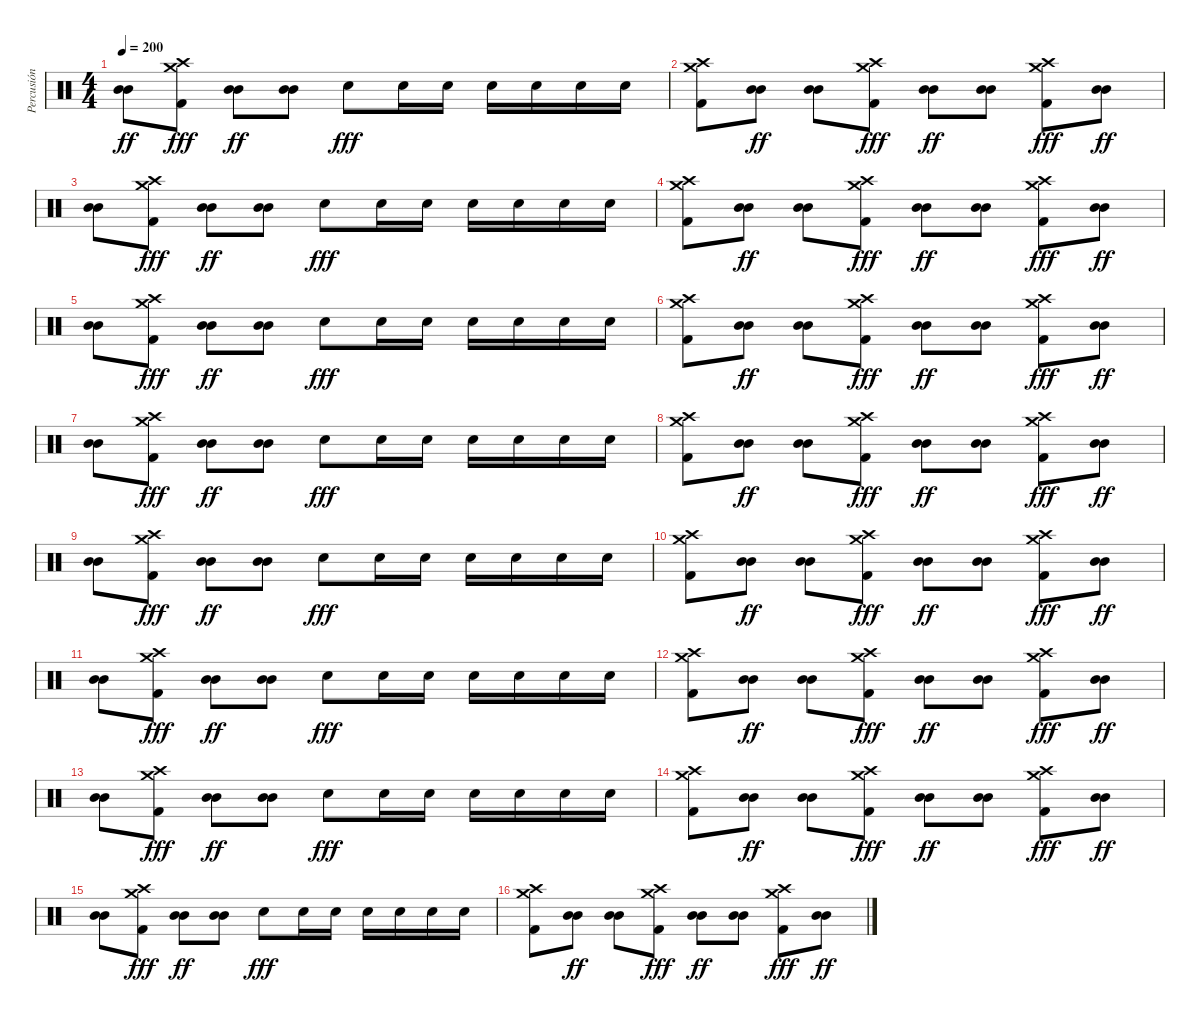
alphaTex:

\track ("Percusión" "Percusión") {instrument percussion}
\staff {score}
\articulation defaults
\ts (4 4)
\tempo 200
\clef neutral
\ks c
("Mid Tom (hit)" "Mid Tom (hit)").8{dy ff} ("Crash high (hit)" "Crash medium (hit)" "Kick (hit) 2").8{dy fff} ("Mid Tom (hit)" "Mid Tom (hit)").8{dy ff} ("Mid Tom (hit)" "Mid Tom (hit)").8 "Snare (hit) 2".8{dy fff} "Snare (hit) 2".16 "Snare (hit) 2".16 "Snare (hit) 2".16 "Snare (hit) 2".16 "Snare (hit) 2".16 "Snare (hit) 2".16 |
("Crash high (hit)" "Crash medium (hit)" "Kick (hit) 2").8 ("Mid Tom (hit)" "Mid Tom (hit)").8{dy ff} ("Mid Tom (hit)" "Mid Tom (hit)").8 ("Crash high (hit)" "Crash medium (hit)" "Kick (hit) 2").8{dy fff} ("Mid Tom (hit)" "Mid Tom (hit)").8{dy ff} ("Mid Tom (hit)" "Mid Tom (hit)").8 ("Crash high (hit)" "Crash medium (hit)" "Kick (hit) 2").8{dy fff} ("Mid Tom (hit)" "Mid Tom (hit)").8{dy ff} |
("Mid Tom (hit)" "Mid Tom (hit)").8 ("Crash high (hit)" "Crash medium (hit)" "Kick (hit) 2").8{dy fff} ("Mid Tom (hit)" "Mid Tom (hit)").8{dy ff} ("Mid Tom (hit)" "Mid Tom (hit)").8 "Snare (hit) 2".8{dy fff} "Snare (hit) 2".16 "Snare (hit) 2".16 "Snare (hit) 2".16 "Snare (hit) 2".16 "Snare (hit) 2".16 "Snare (hit) 2".16 |
("Crash high (hit)" "Crash medium (hit)" "Kick (hit) 2").8 ("Mid Tom (hit)" "Mid Tom (hit)").8{dy ff} ("Mid Tom (hit)" "Mid Tom (hit)").8 ("Crash high (hit)" "Crash medium (hit)" "Kick (hit) 2").8{dy fff} ("Mid Tom (hit)" "Mid Tom (hit)").8{dy ff} ("Mid Tom (hit)" "Mid Tom (hit)").8 ("Crash high (hit)" "Crash medium (hit)" "Kick (hit) 2").8{dy fff} ("Mid Tom (hit)" "Mid Tom (hit)").8{dy ff} |
("Mid Tom (hit)" "Mid Tom (hit)").8 ("Crash high (hit)" "Crash medium (hit)" "Kick (hit) 2").8{dy fff} ("Mid Tom (hit)" "Mid Tom (hit)").8{dy ff} ("Mid Tom (hit)" "Mid Tom (hit)").8 "Snare (hit) 2".8{dy fff} "Snare (hit) 2".16 "Snare (hit) 2".16 "Snare (hit) 2".16 "Snare (hit) 2".16 "Snare (hit) 2".16 "Snare (hit) 2".16 |
("Crash high (hit)" "Crash medium (hit)" "Kick (hit) 2").8 ("Mid Tom (hit)" "Mid Tom (hit)").8{dy ff} ("Mid Tom (hit)" "Mid Tom (hit)").8 ("Crash high (hit)" "Crash medium (hit)" "Kick (hit) 2").8{dy fff} ("Mid Tom (hit)" "Mid Tom (hit)").8{dy ff} ("Mid Tom (hit)" "Mid Tom (hit)").8 ("Crash high (hit)" "Crash medium (hit)" "Kick (hit) 2").8{dy fff} ("Mid Tom (hit)" "Mid Tom (hit)").8{dy ff} |
("Mid Tom (hit)" "Mid Tom (hit)").8 ("Crash high (hit)" "Crash medium (hit)" "Kick (hit) 2").8{dy fff} ("Mid Tom (hit)" "Mid Tom (hit)").8{dy ff} ("Mid Tom (hit)" "Mid Tom (hit)").8 "Snare (hit) 2".8{dy fff} "Snare (hit) 2".16 "Snare (hit) 2".16 "Snare (hit) 2".16 "Snare (hit) 2".16 "Snare (hit) 2".16 "Snare (hit) 2".16 |
("Crash high (hit)" "Crash medium (hit)" "Kick (hit) 2").8 ("Mid Tom (hit)" "Mid Tom (hit)").8{dy ff} ("Mid Tom (hit)" "Mid Tom (hit)").8 ("Crash high (hit)" "Crash medium (hit)" "Kick (hit) 2").8{dy fff} ("Mid Tom (hit)" "Mid Tom (hit)").8{dy ff} ("Mid Tom (hit)" "Mid Tom (hit)").8 ("Crash high (hit)" "Crash medium (hit)" "Kick (hit) 2").8{dy fff} ("Mid Tom (hit)" "Mid Tom (hit)").8{dy ff} |
("Mid Tom (hit)" "Mid Tom (hit)").8 ("Crash high (hit)" "Crash medium (hit)" "Kick (hit) 2").8{dy fff} ("Mid Tom (hit)" "Mid Tom (hit)").8{dy ff} ("Mid Tom (hit)" "Mid Tom (hit)").8 "Snare (hit) 2".8{dy fff} "Snare (hit) 2".16 "Snare (hit) 2".16 "Snare (hit) 2".16 "Snare (hit) 2".16 "Snare (hit) 2".16 "Snare (hit) 2".16 |
("Crash high (hit)" "Crash medium (hit)" "Kick (hit) 2").8 ("Mid Tom (hit)" "Mid Tom (hit)").8{dy ff} ("Mid Tom (hit)" "Mid Tom (hit)").8 ("Crash high (hit)" "Crash medium (hit)" "Kick (hit) 2").8{dy fff} ("Mid Tom (hit)" "Mid Tom (hit)").8{dy ff} ("Mid Tom (hit)" "Mid Tom (hit)").8 ("Crash high (hit)" "Crash medium (hit)" "Kick (hit) 2").8{dy fff} ("Mid Tom (hit)" "Mid Tom (hit)").8{dy ff} |
("Mid Tom (hit)" "Mid Tom (hit)").8 ("Crash high (hit)" "Crash medium (hit)" "Kick (hit) 2").8{dy fff} ("Mid Tom (hit)" "Mid Tom (hit)").8{dy ff} ("Mid Tom (hit)" "Mid Tom (hit)").8 "Snare (hit) 2".8{dy fff} "Snare (hit) 2".16 "Snare (hit) 2".16 "Snare (hit) 2".16 "Snare (hit) 2".16 "Snare (hit) 2".16 "Snare (hit) 2".16 |
("Crash high (hit)" "Crash medium (hit)" "Kick (hit) 2").8 ("Mid Tom (hit)" "Mid Tom (hit)").8{dy ff} ("Mid Tom (hit)" "Mid Tom (hit)").8 ("Crash high (hit)" "Crash medium (hit)" "Kick (hit) 2").8{dy fff} ("Mid Tom (hit)" "Mid Tom (hit)").8{dy ff} ("Mid Tom (hit)" "Mid Tom (hit)").8 ("Crash high (hit)" "Crash medium (hit)" "Kick (hit) 2").8{dy fff} ("Mid Tom (hit)" "Mid Tom (hit)").8{dy ff} |
("Mid Tom (hit)" "Mid Tom (hit)").8 ("Crash high (hit)" "Crash medium (hit)" "Kick (hit) 2").8{dy fff} ("Mid Tom (hit)" "Mid Tom (hit)").8{dy ff} ("Mid Tom (hit)" "Mid Tom (hit)").8 "Snare (hit) 2".8{dy fff} "Snare (hit) 2".16 "Snare (hit) 2".16 "Snare (hit) 2".16 "Snare (hit) 2".16 "Snare (hit) 2".16 "Snare (hit) 2".16 |
("Crash high (hit)" "Crash medium (hit)" "Kick (hit) 2").8 ("Mid Tom (hit)" "Mid Tom (hit)").8{dy ff} ("Mid Tom (hit)" "Mid Tom (hit)").8 ("Crash high (hit)" "Crash medium (hit)" "Kick (hit) 2").8{dy fff} ("Mid Tom (hit)" "Mid Tom (hit)").8{dy ff} ("Mid Tom (hit)" "Mid Tom (hit)").8 ("Crash high (hit)" "Crash medium (hit)" "Kick (hit) 2").8{dy fff} ("Mid Tom (hit)" "Mid Tom (hit)").8{dy ff} |
("Mid Tom (hit)" "Mid Tom (hit)").8 ("Crash high (hit)" "Crash medium (hit)" "Kick (hit) 2").8{dy fff} ("Mid Tom (hit)" "Mid Tom (hit)").8{dy ff} ("Mid Tom (hit)" "Mid Tom (hit)").8 "Snare (hit) 2".8{dy fff} "Snare (hit) 2".16 "Snare (hit) 2".16 "Snare (hit) 2".16 "Snare (hit) 2".16 "Snare (hit) 2".16 "Snare (hit) 2".16 |
("Crash high (hit)" "Crash medium (hit)" "Kick (hit) 2").8 ("Mid Tom (hit)" "Mid Tom (hit)").8{dy ff} ("Mid Tom (hit)" "Mid Tom (hit)").8 ("Crash high (hit)" "Crash medium (hit)" "Kick (hit) 2").8{dy fff} ("Mid Tom (hit)" "Mid Tom (hit)").8{dy ff} ("Mid Tom (hit)" "Mid Tom (hit)").8 ("Crash high (hit)" "Crash medium (hit)" "Kick (hit) 2").8{dy fff} ("Mid Tom (hit)" "Mid Tom (hit)").8{dy ff}
